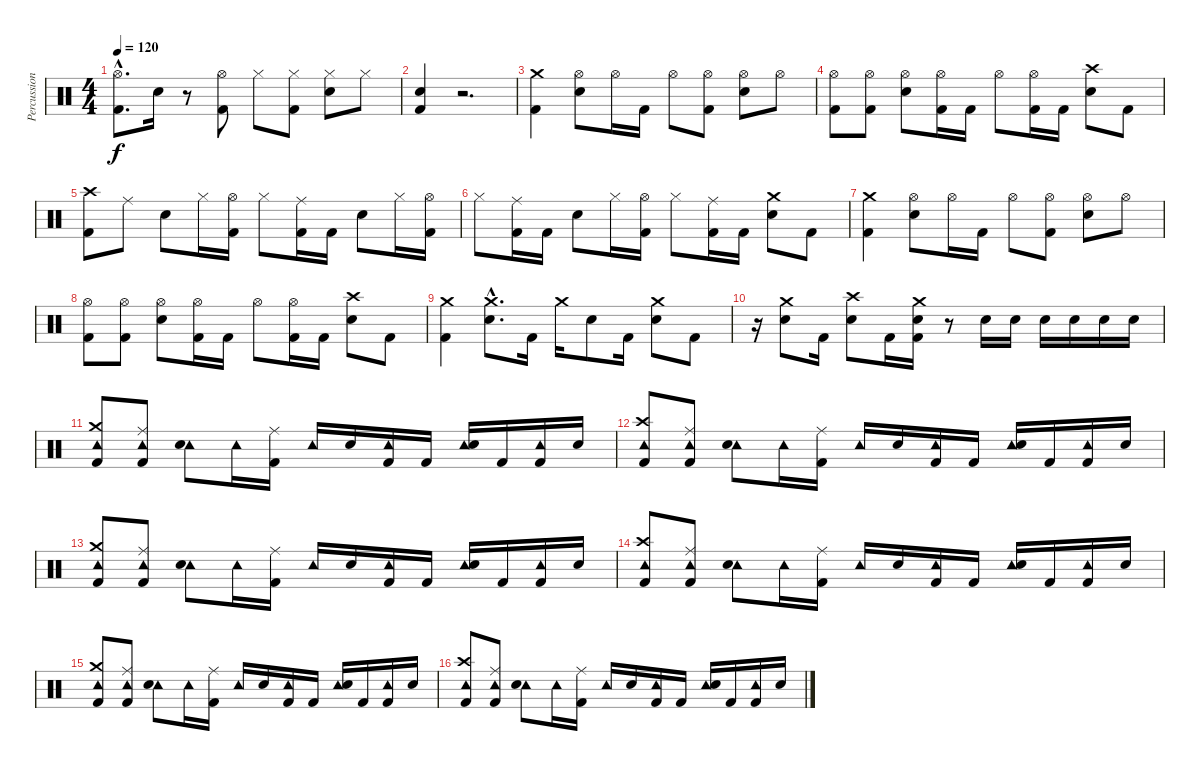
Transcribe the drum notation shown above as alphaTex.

\track ("Percussion" "Percussion") {instrument percussion}
\staff {score}
\articulation defaults
\ts (4 4)
\tempo 120
\clef neutral
\ks c
("Hi-Hat (open)"{hac} "Kick (hit) 2"{hac}).8{d dy f} "Snare (hit) 2".16 r.8 ("Hi-Hat (open)" "Kick (hit) 2").8 "Hi-Hat (closed)".8 ("Hi-Hat (closed)" "Kick (hit) 2").8 ("Hi-Hat (closed)" "Snare (hit) 2").8 "Hi-Hat (closed)".8 |
("Snare (hit) 2" "Kick (hit) 2").4 r.2{d} |
("Crash medium (hit)" "Kick (hit) 2").4 ("Hi-Hat (open)" "Snare (hit) 2").8 "Hi-Hat (open)".16 "Kick (hit) 2".16 "Hi-Hat (open)".8 ("Hi-Hat (open)" "Kick (hit) 2").8 ("Hi-Hat (open)" "Snare (hit) 2").8 "Hi-Hat (open)".8 |
("Hi-Hat (open)" "Kick (hit) 2").8 ("Hi-Hat (open)" "Kick (hit) 2").8 ("Hi-Hat (open)" "Snare (hit) 2").8 ("Hi-Hat (open)" "Kick (hit) 2").16 "Kick (hit) 2".16 "Hi-Hat (open)".8 ("Hi-Hat (open)" "Kick (hit) 2").16 "Kick (hit) 2".16 ("Crash high (hit)" "Snare (hit) 2").8 "Kick (hit) 2".8 |
("Crash high (hit)" "Kick (hit) 2").8 "Ride (middle)".8 "Snare (hit) 2".8 "Hi-Hat (closed)".16 ("Hi-Hat (open)" "Kick (hit) 2").16 "Hi-Hat (closed)".8 ("Ride (middle)" "Kick (hit) 2").16 "Kick (hit) 2".16 "Snare (hit) 2".8 "Hi-Hat (closed)".16 ("Hi-Hat (open)" "Kick (hit) 2").16 |
"Hi-Hat (closed)".8 ("Ride (middle)" "Kick (hit) 2").16 "Kick (hit) 2".16 "Snare (hit) 2".8 "Hi-Hat (closed)".16 ("Hi-Hat (open)" "Kick (hit) 2").16 "Hi-Hat (closed)".8 ("Ride (middle)" "Kick (hit) 2").16 "Kick (hit) 2".16 ("Crash medium (hit)" "Snare (hit) 2").8 "Kick (hit) 2".8 |
("Crash medium (hit)" "Kick (hit) 2").4 ("Hi-Hat (open)" "Snare (hit) 2").8 "Hi-Hat (open)".16 "Kick (hit) 2".16 "Hi-Hat (open)".8 ("Hi-Hat (open)" "Kick (hit) 2").8 ("Hi-Hat (open)" "Snare (hit) 2").8 "Hi-Hat (open)".8 |
("Hi-Hat (open)" "Kick (hit) 2").8 ("Hi-Hat (open)" "Kick (hit) 2").8 ("Hi-Hat (open)" "Snare (hit) 2").8 ("Hi-Hat (open)" "Kick (hit) 2").16 "Kick (hit) 2".16 "Hi-Hat (open)".8 ("Hi-Hat (open)" "Kick (hit) 2").16 "Kick (hit) 2".16 ("Crash high (hit)" "Snare (hit) 2").8 "Kick (hit) 2".8 |
("Crash medium (hit)" "Kick (hit) 2").4 ("Crash medium (hit)"{hac} "Snare (hit) 2"{hac}).8{d} "Kick (hit) 2".16 "Crash medium (hit)".16 "Snare (hit) 2".8 "Kick (hit) 2".16 ("Crash medium (hit)" "Snare (hit) 2").8 "Kick (hit) 2".8 |
r.16 ("Crash medium (hit)" "Snare (hit) 2").8 "Kick (hit) 2".16 ("Crash high (hit)" "Snare (hit) 2").8 "Kick (hit) 2".16 ("Crash medium (hit)" "Snare (hit) 2" "Kick (hit) 2").16 r.8 "Snare (hit) 2".16 "Snare (hit) 2".16 "Snare (hit) 2".16 "Snare (hit) 2".16 "Snare (hit) 2".16 "Snare (hit) 2".16 |
("Crash medium (hit)" "Tambourine (hit)" "Kick (hit) 2").8 ("Ride (middle)" "Tambourine (hit)" "Kick (hit) 2").8 ("Tambourine (hit)" "Snare (hit) 2").8 "Tambourine (hit)".16 ("Ride (middle)" "Kick (hit) 2").16 "Tambourine (hit)".16 "Snare (hit) 2".16 ("Tambourine (hit)" "Kick (hit) 2").16 "Kick (hit) 2".16 ("Tambourine (hit)" "Snare (hit) 2").16 "Kick (hit) 2".16 ("Tambourine (hit)" "Kick (hit) 2").16 "Snare (hit) 2".16 |
("Crash high (hit)" "Tambourine (hit)" "Kick (hit) 2").8 ("Ride (middle)" "Tambourine (hit)" "Kick (hit) 2").8 ("Tambourine (hit)" "Snare (hit) 2").8 "Tambourine (hit)".16 ("Ride (middle)" "Kick (hit) 2").16 "Tambourine (hit)".16 "Snare (hit) 2".16 ("Tambourine (hit)" "Kick (hit) 2").16 "Kick (hit) 2".16 ("Tambourine (hit)" "Snare (hit) 2").16 "Kick (hit) 2".16 ("Tambourine (hit)" "Kick (hit) 2").16 "Snare (hit) 2".16 |
("Crash medium (hit)" "Tambourine (hit)" "Kick (hit) 2").8 ("Ride (middle)" "Tambourine (hit)" "Kick (hit) 2").8 ("Tambourine (hit)" "Snare (hit) 2").8 "Tambourine (hit)".16 ("Ride (middle)" "Kick (hit) 2").16 "Tambourine (hit)".16 "Snare (hit) 2".16 ("Tambourine (hit)" "Kick (hit) 2").16 "Kick (hit) 2".16 ("Tambourine (hit)" "Snare (hit) 2").16 "Kick (hit) 2".16 ("Tambourine (hit)" "Kick (hit) 2").16 "Snare (hit) 2".16 |
("Crash high (hit)" "Tambourine (hit)" "Kick (hit) 2").8 ("Ride (middle)" "Tambourine (hit)" "Kick (hit) 2").8 ("Tambourine (hit)" "Snare (hit) 2").8 "Tambourine (hit)".16 ("Ride (middle)" "Kick (hit) 2").16 "Tambourine (hit)".16 "Snare (hit) 2".16 ("Tambourine (hit)" "Kick (hit) 2").16 "Kick (hit) 2".16 ("Tambourine (hit)" "Snare (hit) 2").16 "Kick (hit) 2".16 ("Tambourine (hit)" "Kick (hit) 2").16 "Snare (hit) 2".16 |
("Crash medium (hit)" "Tambourine (hit)" "Kick (hit) 2").8 ("Ride (middle)" "Tambourine (hit)" "Kick (hit) 2").8 ("Tambourine (hit)" "Snare (hit) 2").8 "Tambourine (hit)".16 ("Ride (middle)" "Kick (hit) 2").16 "Tambourine (hit)".16 "Snare (hit) 2".16 ("Tambourine (hit)" "Kick (hit) 2").16 "Kick (hit) 2".16 ("Tambourine (hit)" "Snare (hit) 2").16 "Kick (hit) 2".16 ("Tambourine (hit)" "Kick (hit) 2").16 "Snare (hit) 2".16 |
("Crash high (hit)" "Tambourine (hit)" "Kick (hit) 2").8 ("Ride (middle)" "Tambourine (hit)" "Kick (hit) 2").8 ("Tambourine (hit)" "Snare (hit) 2").8 "Tambourine (hit)".16 ("Ride (middle)" "Kick (hit) 2").16 "Tambourine (hit)".16 "Snare (hit) 2".16 ("Tambourine (hit)" "Kick (hit) 2").16 "Kick (hit) 2".16 ("Tambourine (hit)" "Snare (hit) 2").16 "Kick (hit) 2".16 ("Tambourine (hit)" "Kick (hit) 2").16 "Snare (hit) 2".16
